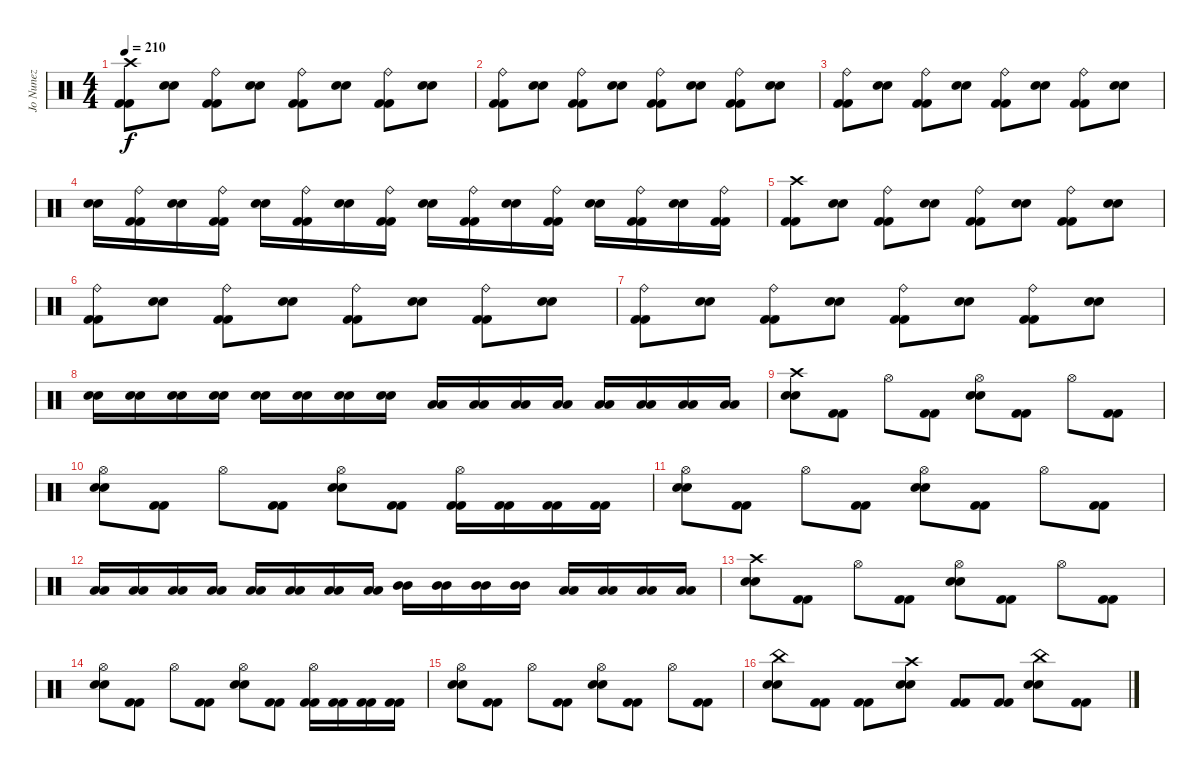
\track ("Jo Nunez" "Jo Nunez") {instrument percussion}
\staff {score}
\articulation defaults
\ts (4 4)
\tempo 210
\clef neutral
\ks c
("Kick (hit) 2" "Kick (hit) 2" "Crash high (hit)").8{dy f} ("Electric Snare (hit)" "Electric Snare (hit)").8 ("Kick (hit) 2" "Kick (hit) 2" "Ride (bell)").8 ("Electric Snare (hit)" "Electric Snare (hit)").8 ("Kick (hit) 2" "Kick (hit) 2" "Ride (bell)").8 ("Electric Snare (hit)" "Electric Snare (hit)").8 ("Kick (hit) 2" "Kick (hit) 2" "Ride (bell)").8 ("Electric Snare (hit)" "Electric Snare (hit)").8 |
("Kick (hit) 2" "Kick (hit) 2" "Ride (bell)").8 ("Electric Snare (hit)" "Electric Snare (hit)").8 ("Kick (hit) 2" "Kick (hit) 2" "Ride (bell)").8 ("Electric Snare (hit)" "Electric Snare (hit)").8 ("Kick (hit) 2" "Kick (hit) 2" "Ride (bell)").8 ("Electric Snare (hit)" "Electric Snare (hit)").8 ("Kick (hit) 2" "Kick (hit) 2" "Ride (bell)").8 ("Electric Snare (hit)" "Electric Snare (hit)").8 |
("Kick (hit) 2" "Kick (hit) 2" "Ride (bell)").8 ("Electric Snare (hit)" "Electric Snare (hit)").8 ("Kick (hit) 2" "Kick (hit) 2" "Ride (bell)").8 ("Electric Snare (hit)" "Electric Snare (hit)").8 ("Kick (hit) 2" "Kick (hit) 2" "Ride (bell)").8 ("Electric Snare (hit)" "Electric Snare (hit)").8 ("Kick (hit) 2" "Kick (hit) 2" "Ride (bell)").8 ("Electric Snare (hit)" "Electric Snare (hit)").8 |
("Electric Snare (hit)" "Electric Snare (hit)").16 ("Kick (hit) 2" "Kick (hit) 2" "Ride (bell)").16 ("Electric Snare (hit)" "Electric Snare (hit)").16 ("Kick (hit) 2" "Kick (hit) 2" "Ride (bell)").16 ("Electric Snare (hit)" "Electric Snare (hit)").16 ("Kick (hit) 2" "Kick (hit) 2" "Ride (bell)").16 ("Electric Snare (hit)" "Electric Snare (hit)").16 ("Kick (hit) 2" "Kick (hit) 2" "Ride (bell)").16 ("Electric Snare (hit)" "Electric Snare (hit)").16 ("Kick (hit) 2" "Kick (hit) 2" "Ride (bell)").16 ("Electric Snare (hit)" "Electric Snare (hit)").16 ("Kick (hit) 2" "Kick (hit) 2" "Ride (bell)").16 ("Electric Snare (hit)" "Electric Snare (hit)").16 ("Kick (hit) 2" "Kick (hit) 2" "Ride (bell)").16 ("Electric Snare (hit)" "Electric Snare (hit)").16 ("Kick (hit) 2" "Kick (hit) 2" "Ride (bell)").16 |
("Kick (hit) 2" "Kick (hit) 2" "Crash high (hit)").8 ("Electric Snare (hit)" "Electric Snare (hit)").8 ("Kick (hit) 2" "Kick (hit) 2" "Ride (bell)").8 ("Electric Snare (hit)" "Electric Snare (hit)").8 ("Kick (hit) 2" "Kick (hit) 2" "Ride (bell)").8 ("Electric Snare (hit)" "Electric Snare (hit)").8 ("Kick (hit) 2" "Kick (hit) 2" "Ride (bell)").8 ("Electric Snare (hit)" "Electric Snare (hit)").8 |
("Kick (hit) 2" "Kick (hit) 2" "Ride (bell)").8 ("Electric Snare (hit)" "Electric Snare (hit)").8 ("Kick (hit) 2" "Kick (hit) 2" "Ride (bell)").8 ("Electric Snare (hit)" "Electric Snare (hit)").8 ("Kick (hit) 2" "Kick (hit) 2" "Ride (bell)").8 ("Electric Snare (hit)" "Electric Snare (hit)").8 ("Kick (hit) 2" "Kick (hit) 2" "Ride (bell)").8 ("Electric Snare (hit)" "Electric Snare (hit)").8 |
("Kick (hit) 2" "Kick (hit) 2" "Ride (bell)").8 ("Electric Snare (hit)" "Electric Snare (hit)").8 ("Kick (hit) 2" "Kick (hit) 2" "Ride (bell)").8 ("Electric Snare (hit)" "Electric Snare (hit)").8 ("Kick (hit) 2" "Kick (hit) 2" "Ride (bell)").8 ("Electric Snare (hit)" "Electric Snare (hit)").8 ("Kick (hit) 2" "Kick (hit) 2" "Ride (bell)").8 ("Electric Snare (hit)" "Electric Snare (hit)").8 |
("Electric Snare (hit)" "Electric Snare (hit)").16 ("Electric Snare (hit)" "Electric Snare (hit)").16 ("Electric Snare (hit)" "Electric Snare (hit)").16 ("Electric Snare (hit)" "Electric Snare (hit)").16 ("Electric Snare (hit)" "Electric Snare (hit)").16 ("Electric Snare (hit)" "Electric Snare (hit)").16 ("Electric Snare (hit)" "Electric Snare (hit)").16 ("Electric Snare (hit)" "Electric Snare (hit)").16 ("Low Tom (hit)" "Low Tom (hit)").16 ("Low Tom (hit)" "Low Tom (hit)").16 ("Low Tom (hit)" "Low Tom (hit)").16 ("Low Tom (hit)" "Low Tom (hit)").16 ("Low Tom (hit)" "Low Tom (hit)").16 ("Low Tom (hit)" "Low Tom (hit)").16 ("Low Tom (hit)" "Low Tom (hit)").16 ("Low Tom (hit)" "Low Tom (hit)").16 |
("Electric Snare (hit)" "Electric Snare (hit)" "Crash high (hit)").8 ("Kick (hit) 2" "Kick (hit) 2").8 "Hi-Hat (open)".8 ("Kick (hit) 2" "Kick (hit) 2").8 ("Electric Snare (hit)" "Electric Snare (hit)" "Hi-Hat (open)").8 ("Kick (hit) 2" "Kick (hit) 2").8 "Hi-Hat (open)".8 ("Kick (hit) 2" "Kick (hit) 2").8 |
("Electric Snare (hit)" "Electric Snare (hit)" "Hi-Hat (open)").8 ("Kick (hit) 2" "Kick (hit) 2").8 "Hi-Hat (open)".8 ("Kick (hit) 2" "Kick (hit) 2").8 ("Electric Snare (hit)" "Electric Snare (hit)" "Hi-Hat (open)").8 ("Kick (hit) 2" "Kick (hit) 2").8 ("Kick (hit) 2" "Kick (hit) 2" "Hi-Hat (open)").16 ("Kick (hit) 2" "Kick (hit) 2").16 ("Kick (hit) 2" "Kick (hit) 2").16 ("Kick (hit) 2" "Kick (hit) 2").16 |
("Electric Snare (hit)" "Electric Snare (hit)" "Hi-Hat (open)").8 ("Kick (hit) 2" "Kick (hit) 2").8 "Hi-Hat (open)".8 ("Kick (hit) 2" "Kick (hit) 2").8 ("Electric Snare (hit)" "Electric Snare (hit)" "Hi-Hat (open)").8 ("Kick (hit) 2" "Kick (hit) 2").8 "Hi-Hat (open)".8 ("Kick (hit) 2" "Kick (hit) 2").8 |
("Low Tom (hit)" "Low Tom (hit)").16 ("Low Tom (hit)" "Low Tom (hit)").16 ("Low Tom (hit)" "Low Tom (hit)").16 ("Low Tom (hit)" "Low Tom (hit)").16 ("Low Tom (hit)" "Low Tom (hit)").16 ("Low Tom (hit)" "Low Tom (hit)").16 ("Low Tom (hit)" "Low Tom (hit)").16 ("Low Tom (hit)" "Low Tom (hit)").16 ("Mid Tom (hit)" "Mid Tom (hit)").16 ("Mid Tom (hit)" "Mid Tom (hit)").16 ("Mid Tom (hit)" "Mid Tom (hit)").16 ("Mid Tom (hit)" "Mid Tom (hit)").16 ("Low Floor Tom (hit)" "Low Floor Tom (hit)").16 ("Low Floor Tom (hit)" "Low Floor Tom (hit)").16 ("Low Floor Tom (hit)" "Low Floor Tom (hit)").16 ("Low Floor Tom (hit)" "Low Floor Tom (hit)").16 |
("Electric Snare (hit)" "Electric Snare (hit)" "Crash high (hit)").8 ("Kick (hit) 2" "Kick (hit) 2").8 "Hi-Hat (open)".8 ("Kick (hit) 2" "Kick (hit) 2").8 ("Electric Snare (hit)" "Electric Snare (hit)" "Hi-Hat (open)").8 ("Kick (hit) 2" "Kick (hit) 2").8 "Hi-Hat (open)".8 ("Kick (hit) 2" "Kick (hit) 2").8 |
("Electric Snare (hit)" "Electric Snare (hit)" "Hi-Hat (open)").8 ("Kick (hit) 2" "Kick (hit) 2").8 "Hi-Hat (open)".8 ("Kick (hit) 2" "Kick (hit) 2").8 ("Electric Snare (hit)" "Electric Snare (hit)" "Hi-Hat (open)").8 ("Kick (hit) 2" "Kick (hit) 2").8 ("Kick (hit) 2" "Kick (hit) 2" "Hi-Hat (open)").16 ("Kick (hit) 2" "Kick (hit) 2").16 ("Kick (hit) 2" "Kick (hit) 2").16 ("Kick (hit) 2" "Kick (hit) 2").16 |
("Electric Snare (hit)" "Electric Snare (hit)" "Hi-Hat (open)").8 ("Kick (hit) 2" "Kick (hit) 2").8 "Hi-Hat (open)".8 ("Kick (hit) 2" "Kick (hit) 2").8 ("Electric Snare (hit)" "Electric Snare (hit)" "Hi-Hat (open)").8 ("Kick (hit) 2" "Kick (hit) 2").8 "Hi-Hat (open)".8 ("Kick (hit) 2" "Kick (hit) 2").8 |
("Electric Snare (hit)" "Electric Snare (hit)" "China (hit)").8 ("Kick (hit) 2" "Kick (hit) 2").8 ("Kick (hit) 2" "Kick (hit) 2").8 ("Electric Snare (hit)" "Electric Snare (hit)" "Crash high (hit)").8 ("Kick (hit) 2" "Kick (hit) 2").8 ("Kick (hit) 2" "Kick (hit) 2").8 ("Electric Snare (hit)" "Electric Snare (hit)" "China (hit)").8 ("Kick (hit) 2" "Kick (hit) 2").8
